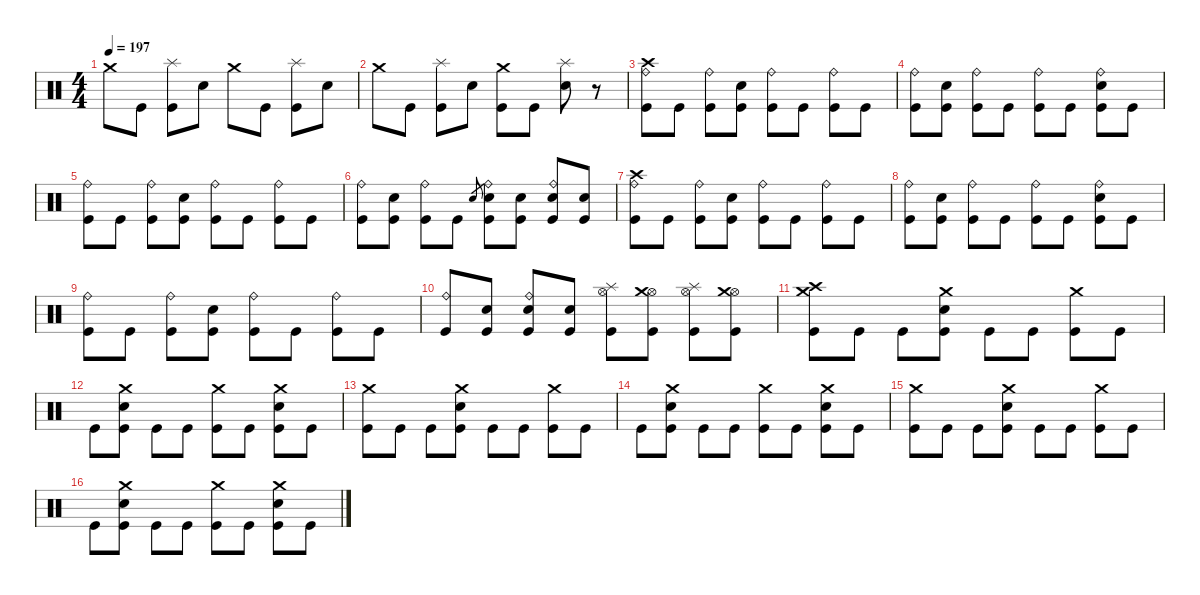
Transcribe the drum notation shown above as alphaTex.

\defaultSystemsLayout 4
\hideDynamics
\bracketExtendMode nobrackets
\singleTrackTrackNamePolicy hidden
\multiTrackTrackNamePolicy hidden
\firstSystemTrackNameMode fullname
\firstSystemTrackNameOrientation horizontal
\otherSystemsTrackNameOrientation horizontal
\track ("Drums" "drm.") {defaultSystemsLayout 4 instrument percussion}
\staff {score}
\articulation defaults
\ts (4 4)
\tempo 197
\clef neutral
\ks c "Crash medium (hit)".8{dy mf beam Down} "Kick (hit)".8{dy f beam Down}
("Splash (hit)" "Kick (hit)").8{dy mf beam Down} "Snare (hit) 2".8{dy f beam Down} "Crash medium (hit)".8{dy mf beam Down} "Kick (hit)".8{dy f beam Down} ("Splash (hit)" "Kick (hit)").8{dy mf beam Down} "Snare (hit) 2".8{dy f beam Down} |
"Crash medium (hit)".8{dy mf beam Down} "Kick (hit)".8{dy f beam Down} ("Splash (hit)" "Kick (hit)").8{dy mf beam Down} "Snare (hit) 2".8{dy f beam Down} ("Crash medium (hit)" "Kick (hit)").8{dy mf beam Down} "Kick (hit)".8{dy f beam Down} ("Splash (hit)" "Snare (hit) 2").8{dy mf beam Down} r.8{beam Down} |
("Crash high (hit)" "Ride (bell)" "Kick (hit)").8{dy f beam Down} "Kick (hit)".8{beam Down} ("Ride (bell)" "Kick (hit)").8{beam Down} ("Snare (hit) 2" "Kick (hit)").8{beam Down} ("Ride (bell)" "Kick (hit)").8{beam Down} "Kick (hit)".8{beam Down} ("Ride (bell)" "Kick (hit)").8{beam Down} "Kick (hit)".8{beam Down} |
("Ride (bell)" "Kick (hit)").8{beam Down} ("Snare (hit) 2" "Kick (hit)").8{beam Down} ("Ride (bell)" "Kick (hit)").8{beam Down} "Kick (hit)".8{beam Down} ("Ride (bell)" "Kick (hit)").8{beam Down} "Kick (hit)".8{beam Down} ("Ride (bell)" "Snare (hit) 2" "Kick (hit)").8{beam Down} "Kick (hit)".8{beam Down} |
("Ride (bell)" "Kick (hit)").8{beam Down} "Kick (hit)".8{beam Down} ("Ride (bell)" "Kick (hit)").8{beam Down} ("Snare (hit) 2" "Kick (hit)").8{beam Down} ("Ride (bell)" "Kick (hit)").8{beam Down} "Kick (hit)".8{beam Down} ("Ride (bell)" "Kick (hit)").8{beam Down} "Kick (hit)".8{beam Down} |
("Ride (bell)" "Kick (hit)").8{beam Down} ("Snare (hit) 2" "Kick (hit)").8{beam Down} ("Ride (bell)" "Kick (hit)").8{beam Down} "Kick (hit)".8{beam Down} "Electric Snare (hit)".8{gr dy mf beam Up} ("Ride (bell)" "Snare (hit) 2" "Kick (hit)").8{dy f beam Down} ("Snare (hit) 2" "Kick (hit)").8{beam Down} ("Ride (bell)" "Snare (hit) 2" "Kick (hit)").8{beam Up} ("Snare (hit) 2" "Kick (hit)").8{beam Up} |
("Crash high (hit)" "Ride (bell)" "Kick (hit)").8{beam Down} "Kick (hit)".8{beam Down} ("Ride (bell)" "Kick (hit)").8{beam Down} ("Snare (hit) 2" "Kick (hit)").8{beam Down} ("Ride (bell)" "Kick (hit)").8{beam Down} "Kick (hit)".8{beam Down} ("Ride (bell)" "Kick (hit)").8{beam Down} "Kick (hit)".8{beam Down} |
("Ride (bell)" "Kick (hit)").8{beam Down} ("Snare (hit) 2" "Kick (hit)").8{beam Down} ("Ride (bell)" "Kick (hit)").8{beam Down} "Kick (hit)".8{beam Down} ("Ride (bell)" "Kick (hit)").8{beam Down} "Kick (hit)".8{beam Down} ("Ride (bell)" "Snare (hit) 2" "Kick (hit)").8{beam Down} "Kick (hit)".8{beam Down} |
("Ride (bell)" "Kick (hit)").8{beam Down} "Kick (hit)".8{beam Down} ("Ride (bell)" "Kick (hit)").8{beam Down} ("Snare (hit) 2" "Kick (hit)").8{beam Down} ("Ride (bell)" "Kick (hit)").8{beam Down} "Kick (hit)".8{beam Down} ("Ride (bell)" "Kick (hit)").8{beam Down} "Kick (hit)".8{beam Down} |
("Ride (bell)" "Kick (hit)").8{beam Up} ("Snare (hit) 2" "Kick (hit)").8{beam Up} ("Ride (bell)" "Snare (hit) 2" "Kick (hit)").8{beam Up} ("Snare (hit) 2" "Kick (hit)").8{beam Up} ("Hi-Hat (open)" "Splash (hit)" "Kick (hit)").8{beam Down} ("Hi-Hat (open)" "Crash medium (hit)" "Kick (hit)").8{beam Down} ("Hi-Hat (open)" "Splash (hit)" "Kick (hit)").8{beam Down} ("Hi-Hat (open)" "Crash medium (hit)" "Kick (hit)").8{beam Down} |
("Crash high (hit)" "Crash medium (hit)" "Kick (hit)").8{beam Down} "Kick (hit)".8{beam Down} "Kick (hit)".8{beam Down} ("Crash medium (hit)" "Snare (hit) 2" "Kick (hit)").8{beam Down} "Kick (hit)".8{beam Down} "Kick (hit)".8{beam Down} ("Crash medium (hit)" "Kick (hit)").8{beam Down} "Kick (hit)".8{beam Down} |
"Kick (hit)".8{beam Down} ("Crash medium (hit)" "Snare (hit) 2" "Kick (hit)").8{beam Down} "Kick (hit)".8{beam Down} "Kick (hit)".8{beam Down} ("Crash medium (hit)" "Kick (hit)").8{beam Down} "Kick (hit)".8{beam Down} ("Crash medium (hit)" "Snare (hit) 2" "Kick (hit)").8{beam Down} "Kick (hit)".8{beam Down} |
("Crash medium (hit)" "Kick (hit)").8{beam Down} "Kick (hit)".8{beam Down} "Kick (hit)".8{beam Down} ("Crash medium (hit)" "Snare (hit) 2" "Kick (hit)").8{beam Down} "Kick (hit)".8{beam Down} "Kick (hit)".8{beam Down} ("Crash medium (hit)" "Kick (hit)").8{beam Down} "Kick (hit)".8{beam Down} |
"Kick (hit)".8{beam Down} ("Crash medium (hit)" "Snare (hit) 2" "Kick (hit)").8{beam Down} "Kick (hit)".8{beam Down} "Kick (hit)".8{beam Down} ("Crash medium (hit)" "Kick (hit)").8{beam Down} "Kick (hit)".8{beam Down} ("Crash medium (hit)" "Snare (hit) 2" "Kick (hit)").8{beam Down} "Kick (hit)".8{beam Down} |
("Crash medium (hit)" "Kick (hit)").8{beam Down} "Kick (hit)".8{beam Down} "Kick (hit)".8{beam Down} ("Crash medium (hit)" "Snare (hit) 2" "Kick (hit)").8{beam Down} "Kick (hit)".8{beam Down} "Kick (hit)".8{beam Down} ("Crash medium (hit)" "Kick (hit)").8{beam Down} "Kick (hit)".8{beam Down} |
"Kick (hit)".8{beam Down} ("Crash medium (hit)" "Snare (hit) 2" "Kick (hit)").8{beam Down} "Kick (hit)".8{beam Down} "Kick (hit)".8{beam Down} ("Crash medium (hit)" "Kick (hit)").8{beam Down} "Kick (hit)".8{beam Down} ("Crash medium (hit)" "Snare (hit) 2" "Kick (hit)").8{beam Down} "Kick (hit)".8{beam Down}
